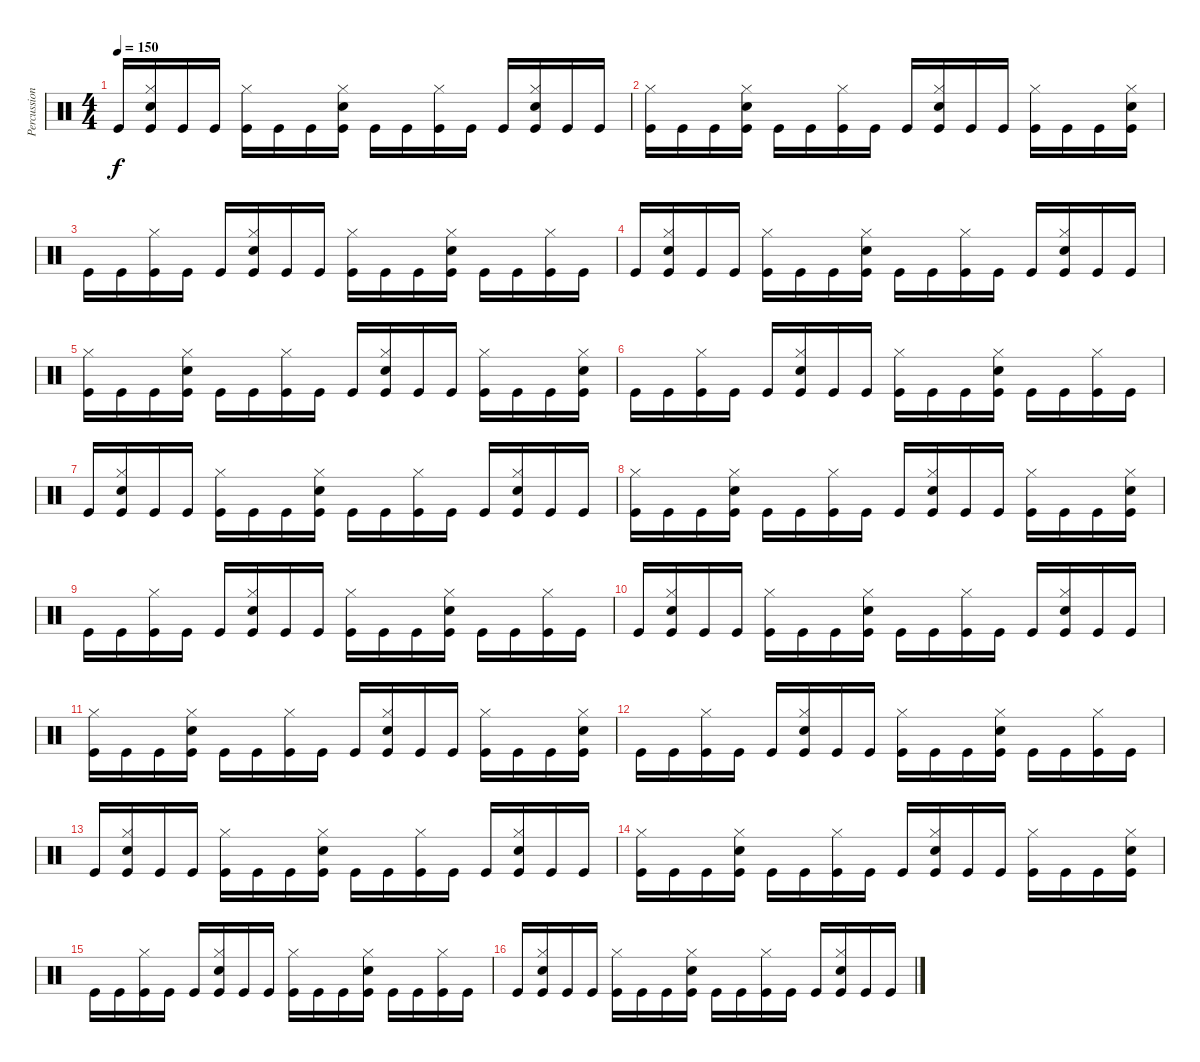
\track ("Percussion" "Percussion") {instrument percussion}
\staff {score}
\articulation defaults
\ts (4 4)
\tempo 150
\clef neutral
\ks c "Kick (hit)".16{dy f}
("Hi-Hat (closed)" "Kick (hit)" "Snare (hit) 2").16 "Kick (hit)".16 "Kick (hit)".16 ("Hi-Hat (closed)" "Kick (hit)").16 "Kick (hit)".16 "Kick (hit)".16 ("Hi-Hat (closed)" "Kick (hit)" "Snare (hit) 2").16 "Kick (hit)".16 "Kick (hit)".16 ("Hi-Hat (closed)" "Kick (hit)").16 "Kick (hit)".16 "Kick (hit)".16 ("Hi-Hat (closed)" "Kick (hit)" "Snare (hit) 2").16 "Kick (hit)".16 "Kick (hit)".16 |
("Hi-Hat (closed)" "Kick (hit)").16 "Kick (hit)".16 "Kick (hit)".16 ("Hi-Hat (closed)" "Kick (hit)" "Snare (hit) 2").16 "Kick (hit)".16 "Kick (hit)".16 ("Hi-Hat (closed)" "Kick (hit)").16 "Kick (hit)".16 "Kick (hit)".16 ("Hi-Hat (closed)" "Kick (hit)" "Snare (hit) 2").16 "Kick (hit)".16 "Kick (hit)".16 ("Hi-Hat (closed)" "Kick (hit)").16 "Kick (hit)".16 "Kick (hit)".16 ("Hi-Hat (closed)" "Kick (hit)" "Snare (hit) 2").16 |
"Kick (hit)".16 "Kick (hit)".16 ("Hi-Hat (closed)" "Kick (hit)").16 "Kick (hit)".16 "Kick (hit)".16 ("Hi-Hat (closed)" "Kick (hit)" "Snare (hit) 2").16 "Kick (hit)".16 "Kick (hit)".16 ("Hi-Hat (closed)" "Kick (hit)").16 "Kick (hit)".16 "Kick (hit)".16 ("Hi-Hat (closed)" "Kick (hit)" "Snare (hit) 2").16 "Kick (hit)".16 "Kick (hit)".16 ("Hi-Hat (closed)" "Kick (hit)").16 "Kick (hit)".16 |
"Kick (hit)".16 ("Hi-Hat (closed)" "Kick (hit)" "Snare (hit) 2").16 "Kick (hit)".16 "Kick (hit)".16 ("Hi-Hat (closed)" "Kick (hit)").16 "Kick (hit)".16 "Kick (hit)".16 ("Hi-Hat (closed)" "Kick (hit)" "Snare (hit) 2").16 "Kick (hit)".16 "Kick (hit)".16 ("Hi-Hat (closed)" "Kick (hit)").16 "Kick (hit)".16 "Kick (hit)".16 ("Hi-Hat (closed)" "Kick (hit)" "Snare (hit) 2").16 "Kick (hit)".16 "Kick (hit)".16 |
("Hi-Hat (closed)" "Kick (hit)").16 "Kick (hit)".16 "Kick (hit)".16 ("Hi-Hat (closed)" "Kick (hit)" "Snare (hit) 2").16 "Kick (hit)".16 "Kick (hit)".16 ("Hi-Hat (closed)" "Kick (hit)").16 "Kick (hit)".16 "Kick (hit)".16 ("Hi-Hat (closed)" "Kick (hit)" "Snare (hit) 2").16 "Kick (hit)".16 "Kick (hit)".16 ("Hi-Hat (closed)" "Kick (hit)").16 "Kick (hit)".16 "Kick (hit)".16 ("Hi-Hat (closed)" "Kick (hit)" "Snare (hit) 2").16 |
"Kick (hit)".16 "Kick (hit)".16 ("Hi-Hat (closed)" "Kick (hit)").16 "Kick (hit)".16 "Kick (hit)".16 ("Hi-Hat (closed)" "Kick (hit)" "Snare (hit) 2").16 "Kick (hit)".16 "Kick (hit)".16 ("Hi-Hat (closed)" "Kick (hit)").16 "Kick (hit)".16 "Kick (hit)".16 ("Hi-Hat (closed)" "Kick (hit)" "Snare (hit) 2").16 "Kick (hit)".16 "Kick (hit)".16 ("Hi-Hat (closed)" "Kick (hit)").16 "Kick (hit)".16 |
"Kick (hit)".16 ("Hi-Hat (closed)" "Kick (hit)" "Snare (hit) 2").16 "Kick (hit)".16 "Kick (hit)".16 ("Hi-Hat (closed)" "Kick (hit)").16 "Kick (hit)".16 "Kick (hit)".16 ("Hi-Hat (closed)" "Kick (hit)" "Snare (hit) 2").16 "Kick (hit)".16 "Kick (hit)".16 ("Hi-Hat (closed)" "Kick (hit)").16 "Kick (hit)".16 "Kick (hit)".16 ("Hi-Hat (closed)" "Kick (hit)" "Snare (hit) 2").16 "Kick (hit)".16 "Kick (hit)".16 |
("Hi-Hat (closed)" "Kick (hit)").16 "Kick (hit)".16 "Kick (hit)".16 ("Hi-Hat (closed)" "Kick (hit)" "Snare (hit) 2").16 "Kick (hit)".16 "Kick (hit)".16 ("Hi-Hat (closed)" "Kick (hit)").16 "Kick (hit)".16 "Kick (hit)".16 ("Hi-Hat (closed)" "Kick (hit)" "Snare (hit) 2").16 "Kick (hit)".16 "Kick (hit)".16 ("Hi-Hat (closed)" "Kick (hit)").16 "Kick (hit)".16 "Kick (hit)".16 ("Hi-Hat (closed)" "Kick (hit)" "Snare (hit) 2").16 |
"Kick (hit)".16 "Kick (hit)".16 ("Hi-Hat (closed)" "Kick (hit)").16 "Kick (hit)".16 "Kick (hit)".16 ("Hi-Hat (closed)" "Kick (hit)" "Snare (hit) 2").16 "Kick (hit)".16 "Kick (hit)".16 ("Hi-Hat (closed)" "Kick (hit)").16 "Kick (hit)".16 "Kick (hit)".16 ("Hi-Hat (closed)" "Kick (hit)" "Snare (hit) 2").16 "Kick (hit)".16 "Kick (hit)".16 ("Hi-Hat (closed)" "Kick (hit)").16 "Kick (hit)".16 |
"Kick (hit)".16 ("Hi-Hat (closed)" "Kick (hit)" "Snare (hit) 2").16 "Kick (hit)".16 "Kick (hit)".16 ("Hi-Hat (closed)" "Kick (hit)").16 "Kick (hit)".16 "Kick (hit)".16 ("Hi-Hat (closed)" "Kick (hit)" "Snare (hit) 2").16 "Kick (hit)".16 "Kick (hit)".16 ("Hi-Hat (closed)" "Kick (hit)").16 "Kick (hit)".16 "Kick (hit)".16 ("Hi-Hat (closed)" "Kick (hit)" "Snare (hit) 2").16 "Kick (hit)".16 "Kick (hit)".16 |
("Hi-Hat (closed)" "Kick (hit)").16 "Kick (hit)".16 "Kick (hit)".16 ("Hi-Hat (closed)" "Kick (hit)" "Snare (hit) 2").16 "Kick (hit)".16 "Kick (hit)".16 ("Hi-Hat (closed)" "Kick (hit)").16 "Kick (hit)".16 "Kick (hit)".16 ("Hi-Hat (closed)" "Kick (hit)" "Snare (hit) 2").16 "Kick (hit)".16 "Kick (hit)".16 ("Hi-Hat (closed)" "Kick (hit)").16 "Kick (hit)".16 "Kick (hit)".16 ("Hi-Hat (closed)" "Kick (hit)" "Snare (hit) 2").16 |
"Kick (hit)".16 "Kick (hit)".16 ("Hi-Hat (closed)" "Kick (hit)").16 "Kick (hit)".16 "Kick (hit)".16 ("Hi-Hat (closed)" "Kick (hit)" "Snare (hit) 2").16 "Kick (hit)".16 "Kick (hit)".16 ("Hi-Hat (closed)" "Kick (hit)").16 "Kick (hit)".16 "Kick (hit)".16 ("Hi-Hat (closed)" "Kick (hit)" "Snare (hit) 2").16 "Kick (hit)".16 "Kick (hit)".16 ("Hi-Hat (closed)" "Kick (hit)").16 "Kick (hit)".16 |
"Kick (hit)".16 ("Hi-Hat (closed)" "Kick (hit)" "Snare (hit) 2").16 "Kick (hit)".16 "Kick (hit)".16 ("Hi-Hat (closed)" "Kick (hit)").16 "Kick (hit)".16 "Kick (hit)".16 ("Hi-Hat (closed)" "Kick (hit)" "Snare (hit) 2").16 "Kick (hit)".16 "Kick (hit)".16 ("Hi-Hat (closed)" "Kick (hit)").16 "Kick (hit)".16 "Kick (hit)".16 ("Hi-Hat (closed)" "Kick (hit)" "Snare (hit) 2").16 "Kick (hit)".16 "Kick (hit)".16 |
("Hi-Hat (closed)" "Kick (hit)").16 "Kick (hit)".16 "Kick (hit)".16 ("Hi-Hat (closed)" "Kick (hit)" "Snare (hit) 2").16 "Kick (hit)".16 "Kick (hit)".16 ("Hi-Hat (closed)" "Kick (hit)").16 "Kick (hit)".16 "Kick (hit)".16 ("Hi-Hat (closed)" "Kick (hit)" "Snare (hit) 2").16 "Kick (hit)".16 "Kick (hit)".16 ("Hi-Hat (closed)" "Kick (hit)").16 "Kick (hit)".16 "Kick (hit)".16 ("Hi-Hat (closed)" "Kick (hit)" "Snare (hit) 2").16 |
"Kick (hit)".16 "Kick (hit)".16 ("Hi-Hat (closed)" "Kick (hit)").16 "Kick (hit)".16 "Kick (hit)".16 ("Hi-Hat (closed)" "Kick (hit)" "Snare (hit) 2").16 "Kick (hit)".16 "Kick (hit)".16 ("Hi-Hat (closed)" "Kick (hit)").16 "Kick (hit)".16 "Kick (hit)".16 ("Hi-Hat (closed)" "Kick (hit)" "Snare (hit) 2").16 "Kick (hit)".16 "Kick (hit)".16 ("Hi-Hat (closed)" "Kick (hit)").16 "Kick (hit)".16 |
"Kick (hit)".16 ("Hi-Hat (closed)" "Kick (hit)" "Snare (hit) 2").16 "Kick (hit)".16 "Kick (hit)".16 ("Hi-Hat (closed)" "Kick (hit)").16 "Kick (hit)".16 "Kick (hit)".16 ("Hi-Hat (closed)" "Kick (hit)" "Snare (hit) 2").16 "Kick (hit)".16 "Kick (hit)".16 ("Hi-Hat (closed)" "Kick (hit)").16 "Kick (hit)".16 "Kick (hit)".16 ("Hi-Hat (closed)" "Kick (hit)" "Snare (hit) 2").16 "Kick (hit)".16 "Kick (hit)".16
